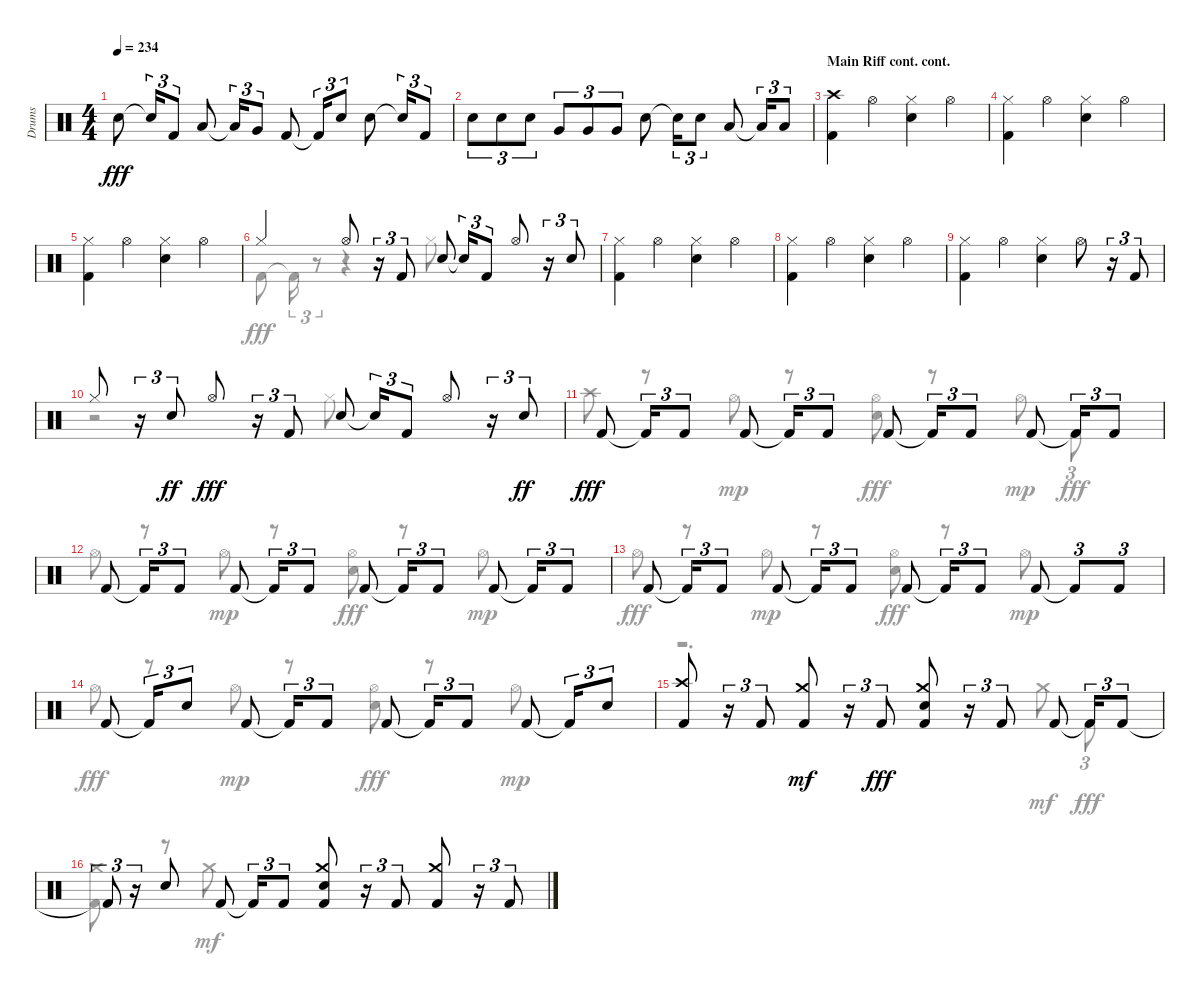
\track ("Drums" "Drums") {instrument percussion}
\staff {score}
\articulation defaults
\voice
\ts (4 4)
\tempo 234
\clef neutral
\ks aminor "Snare (hit) 2".8{dy fff} "Snare (hit) 2"{t}.16{tu (3 2)} "Kick (hit) 2".8{tu (3 2)} "Low Tom (hit)".8 "Low Tom (hit)"{t}.16{tu (3 2)} "Very Low Tom (hit)".8{tu (3 2)} "Kick (hit) 2".8 "Kick (hit) 2"{t}.16{tu (3 2)} "Snare (hit) 2".8{tu (3 2)} "Snare (hit) 2".8 "Snare (hit) 2"{t}.16{tu (3 2)} "Kick (hit) 2".8{tu (3 2)}
|
"Snare (hit) 2".8{tu (3 2)} "Snare (hit) 2".8{tu (3 2)} "Snare (hit) 2".8{tu (3 2)} "Very Low Tom (hit)".8{tu (3 2)} "Very Low Tom (hit)".8{tu (3 2)} "Very Low Tom (hit)".8{tu (3 2)} "Snare (hit) 2".8 "Snare (hit) 2"{t}.16{tu (3 2)} "Snare (hit) 2".8{tu (3 2)} "Low Floor Tom (hit)".8 "Low Floor Tom (hit)"{t}.16{tu (3 2)} "Low Floor Tom (hit)".8{tu (3 2)} |
\section ("" "Main Riff cont. cont.")
("Crash high (hit)" "Kick (hit) 2").4 "Hi-Hat (open)".4 ("Snare (hit) 2" "Hi-Hat (closed)").4 "Hi-Hat (open)".4 |
("Kick (hit) 2" "Hi-Hat (closed)").4 "Hi-Hat (open)".4 ("Hi-Hat (closed)" "Snare (hit) 2").4 "Hi-Hat (open)".4 |
("Kick (hit) 2" "Hi-Hat (closed)").4 "Hi-Hat (open)".4 ("Snare (hit) 2" "Hi-Hat (closed)").4 "Hi-Hat (open)".4 |
"Hi-Hat (closed)".4 "Hi-Hat (open)".8 r.16{tu (3 2)} "Kick (hit) 2".8{tu (3 2)} "Snare (hit) 2".8 "Snare (hit) 2"{t}.16{tu (3 2)} "Kick (hit) 2".8{tu (3 2)} "Hi-Hat (open)".8 r.16{tu (3 2)} "Snare (hit) 2".8{tu (3 2)} |
("Kick (hit) 2" "Hi-Hat (closed)").4 "Hi-Hat (open)".4 ("Hi-Hat (closed)" "Snare (hit) 2").4 "Hi-Hat (open)".4 |
("Hi-Hat (closed)" "Kick (hit) 2").4 "Hi-Hat (open)".4 ("Snare (hit) 2" "Hi-Hat (closed)").4 "Hi-Hat (open)".4 |
("Hi-Hat (closed)" "Kick (hit) 2").4 "Hi-Hat (open)".4 ("Snare (hit) 2" "Hi-Hat (closed)").4 "Hi-Hat (open)".8 r.16{tu (3 2)} "Kick (hit) 2".8{tu (3 2)} |
"Hi-Hat (closed)".8 r.16{tu (3 2)} "Snare (hit) 2".8{tu (3 2) dy ff} "Hi-Hat (open)".8{dy fff} r.16{tu (3 2)} "Kick (hit) 2".8{tu (3 2)} "Snare (hit) 2".8 "Snare (hit) 2"{t}.16{tu (3 2)} "Kick (hit) 2".8{tu (3 2)} "Hi-Hat (open)".8 r.16{tu (3 2)} "Snare (hit) 2".8{tu (3 2) dy ff} |
"Kick (hit) 2".8{dy fff} "Kick (hit) 2"{t}.16{tu (3 2)} "Kick (hit) 2".8{tu (3 2)} "Kick (hit) 2".8 "Kick (hit) 2"{t}.16{tu (3 2)} "Kick (hit) 2".8{tu (3 2)} "Kick (hit) 2".8 "Kick (hit) 2"{t}.16{tu (3 2)} "Kick (hit) 2".8{tu (3 2)} "Kick (hit) 2".8 "Kick (hit) 2"{t}.16{tu (3 2)} "Kick (hit) 2".8{tu (3 2)} |
"Kick (hit) 2".8 "Kick (hit) 2"{t}.16{tu (3 2)} "Kick (hit) 2".8{tu (3 2)} "Kick (hit) 2".8 "Kick (hit) 2"{t}.16{tu (3 2)} "Kick (hit) 2".8{tu (3 2)} "Kick (hit) 2".8 "Kick (hit) 2"{t}.16{tu (3 2)} "Kick (hit) 2".8{tu (3 2)} "Kick (hit) 2".8 "Kick (hit) 2"{t}.16{tu (3 2)} "Kick (hit) 2".8{tu (3 2)} |
"Kick (hit) 2".8 "Kick (hit) 2"{t}.16{tu (3 2)} "Kick (hit) 2".8{tu (3 2)} "Kick (hit) 2".8 "Kick (hit) 2"{t}.16{tu (3 2)} "Kick (hit) 2".8{tu (3 2)} "Kick (hit) 2".8 "Kick (hit) 2"{t}.16{tu (3 2)} "Kick (hit) 2".8{tu (3 2)} "Kick (hit) 2".8 "Kick (hit) 2"{t}.8{tu (3 2)} "Kick (hit) 2".8{tu (3 2)} |
"Kick (hit) 2".8 "Kick (hit) 2"{t}.16{tu (3 2)} "Snare (hit) 2".8{tu (3 2)} "Kick (hit) 2".8 "Kick (hit) 2"{t}.16{tu (3 2)} "Kick (hit) 2".8{tu (3 2)} "Kick (hit) 2".8 "Kick (hit) 2"{t}.16{tu (3 2)} "Kick (hit) 2".8{tu (3 2)} "Kick (hit) 2".8 "Kick (hit) 2"{t}.16{tu (3 2)} "Snare (hit) 2".8{tu (3 2)} |
("Kick (hit) 2" "Crash high (hit)").8 r.16{tu (3 2)} "Kick (hit) 2".8{tu (3 2)} ("Crash medium (hit)" "Kick (hit) 2").8{dy mf} r.16{tu (3 2)} "Kick (hit) 2".8{tu (3 2) dy fff} ("Crash medium (hit)" "Kick (hit) 2" "Snare (hit) 2").8 r.16{tu (3 2)} "Kick (hit) 2".8{tu (3 2)} "Kick (hit) 2".8 "Kick (hit) 2"{t}.16{tu (3 2)} "Kick (hit) 2".8{tu (3 2)} |
"Kick (hit) 2"{t}.8{tu (3 2)} r.16{tu (3 2)} "Snare (hit) 2".8 "Kick (hit) 2".8 "Kick (hit) 2"{t}.16{tu (3 2)} "Kick (hit) 2".8{tu (3 2)} ("Kick (hit) 2" "Snare (hit) 2" "Crash medium (hit)").8 r.16{tu (3 2)} "Kick (hit) 2".8{tu (3 2)} ("Kick (hit) 2" "Crash medium (hit)").8 r.16{tu (3 2)} "Kick (hit) 2".8{tu (3 2)}
\voice
\clef neutral
\ottava regular
\simile none
\ks aminor
|
|
|
|
|
"Kick (hit) 2".8{dy fff} "Kick (hit) 2"{t}.16{tu (3 2)} r.8{tu (3 2)} r.4 "Hi-Hat (closed)".8 |
|
|
|
r.2 "Hi-Hat (closed)".8 |
"Crash high (hit)".8 r.8 "Hi-Hat (open)".8{dy mp} r.8 ("Hi-Hat (open)" "Snare (hit) 2").8{dy fff} r.8 "Hi-Hat (open)".8{dy mp} "Kick (hit) 2".8{tu (3 2) dy fff} |
"Hi-Hat (open)".8 r.8 "Hi-Hat (open)".8{dy mp} r.8 ("Hi-Hat (open)" "Snare (hit) 2").8{dy fff} r.8 "Hi-Hat (open)".8{dy mp} |
"Hi-Hat (open)".8{dy fff} r.8 "Hi-Hat (open)".8{dy mp} r.8 ("Snare (hit) 2" "Hi-Hat (open)").8{dy fff} r.8 "Hi-Hat (open)".8{dy mp} |
"Hi-Hat (open)".8{dy fff} r.8 "Hi-Hat (open)".8{dy mp} r.8 ("Hi-Hat (open)" "Snare (hit) 2").8{dy fff} r.8 "Hi-Hat (open)".8{dy mp} |
r.2{d} "Crash medium (hit)".8{dy mf} "Kick (hit) 2".8{tu (3 2) dy fff} |
("Kick (hit) 2" "Crash medium (hit)").8 r.8 "Crash medium (hit)".8{dy mf}
